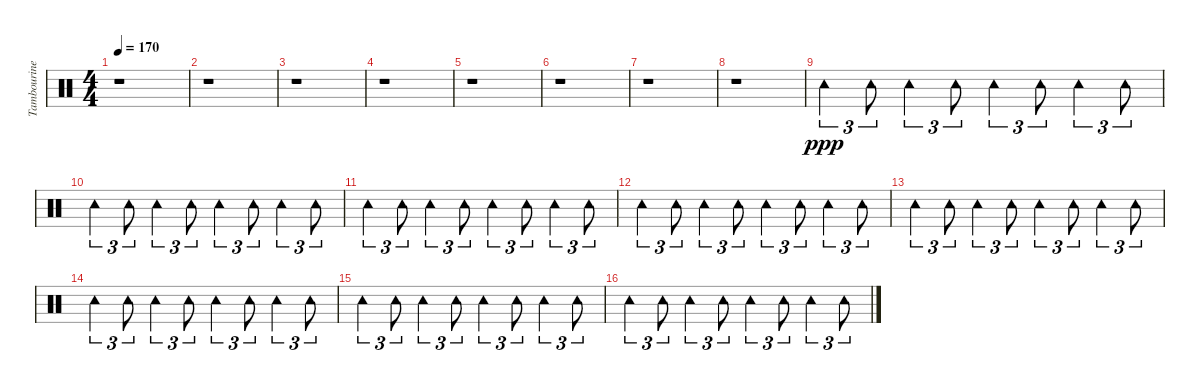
\track ("Tambourine" "Tambourine") {instrument percussion}
\staff {score}
\articulation defaults
\ts (4 4)
\tempo 170
\clef neutral
\ks c
r.1{dy ppp} |
r.1 |
r.1 |
r.1 |
r.1 |
r.1 |
r.1 |
r.1 |
"Tambourine (hit)".4{tu (3 2)} "Tambourine (hit)".8{tu (3 2)} "Tambourine (hit)".4{tu (3 2)} "Tambourine (hit)".8{tu (3 2)} "Tambourine (hit)".4{tu (3 2)} "Tambourine (hit)".8{tu (3 2)} "Tambourine (hit)".4{tu (3 2)} "Tambourine (hit)".8{tu (3 2)} |
"Tambourine (hit)".4{tu (3 2)} "Tambourine (hit)".8{tu (3 2)} "Tambourine (hit)".4{tu (3 2)} "Tambourine (hit)".8{tu (3 2)} "Tambourine (hit)".4{tu (3 2)} "Tambourine (hit)".8{tu (3 2)} "Tambourine (hit)".4{tu (3 2)} "Tambourine (hit)".8{tu (3 2)} |
"Tambourine (hit)".4{tu (3 2)} "Tambourine (hit)".8{tu (3 2)} "Tambourine (hit)".4{tu (3 2)} "Tambourine (hit)".8{tu (3 2)} "Tambourine (hit)".4{tu (3 2)} "Tambourine (hit)".8{tu (3 2)} "Tambourine (hit)".4{tu (3 2)} "Tambourine (hit)".8{tu (3 2)} |
"Tambourine (hit)".4{tu (3 2)} "Tambourine (hit)".8{tu (3 2)} "Tambourine (hit)".4{tu (3 2)} "Tambourine (hit)".8{tu (3 2)} "Tambourine (hit)".4{tu (3 2)} "Tambourine (hit)".8{tu (3 2)} "Tambourine (hit)".4{tu (3 2)} "Tambourine (hit)".8{tu (3 2)} |
"Tambourine (hit)".4{tu (3 2)} "Tambourine (hit)".8{tu (3 2)} "Tambourine (hit)".4{tu (3 2)} "Tambourine (hit)".8{tu (3 2)} "Tambourine (hit)".4{tu (3 2)} "Tambourine (hit)".8{tu (3 2)} "Tambourine (hit)".4{tu (3 2)} "Tambourine (hit)".8{tu (3 2)} |
"Tambourine (hit)".4{tu (3 2)} "Tambourine (hit)".8{tu (3 2)} "Tambourine (hit)".4{tu (3 2)} "Tambourine (hit)".8{tu (3 2)} "Tambourine (hit)".4{tu (3 2)} "Tambourine (hit)".8{tu (3 2)} "Tambourine (hit)".4{tu (3 2)} "Tambourine (hit)".8{tu (3 2)} |
"Tambourine (hit)".4{tu (3 2)} "Tambourine (hit)".8{tu (3 2)} "Tambourine (hit)".4{tu (3 2)} "Tambourine (hit)".8{tu (3 2)} "Tambourine (hit)".4{tu (3 2)} "Tambourine (hit)".8{tu (3 2)} "Tambourine (hit)".4{tu (3 2)} "Tambourine (hit)".8{tu (3 2)} |
"Tambourine (hit)".4{tu (3 2)} "Tambourine (hit)".8{tu (3 2)} "Tambourine (hit)".4{tu (3 2)} "Tambourine (hit)".8{tu (3 2)} "Tambourine (hit)".4{tu (3 2)} "Tambourine (hit)".8{tu (3 2)} "Tambourine (hit)".4{tu (3 2)} "Tambourine (hit)".8{tu (3 2)}
